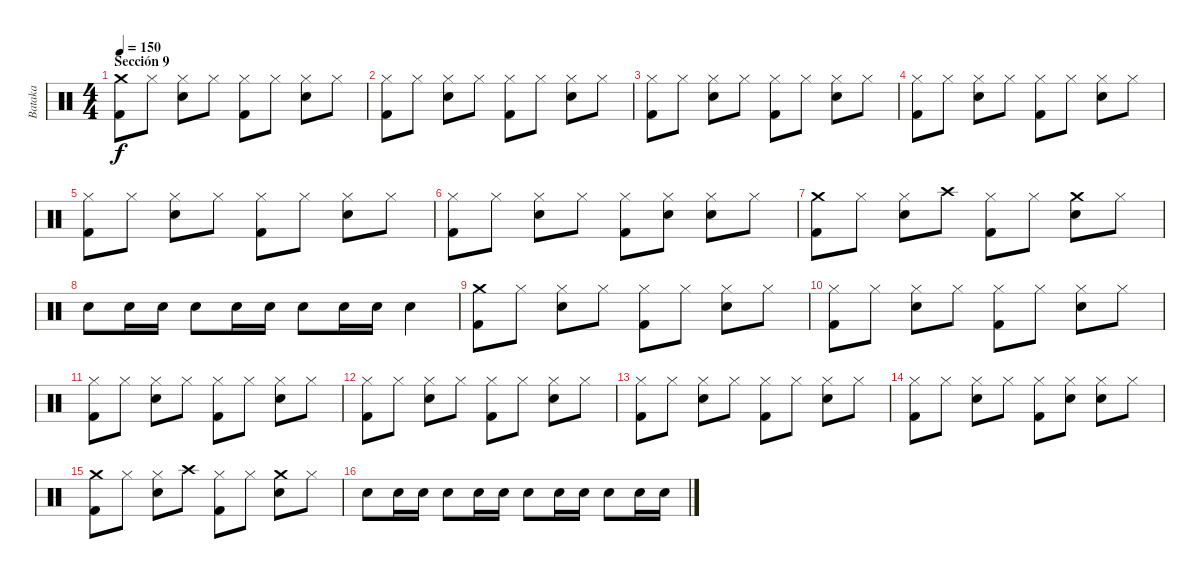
\track ("Bataka" "Bataka") {instrument percussion}
\staff {score}
\articulation defaults
\ts (4 4)
\section ("" "Sección 9")
\tempo 150
\clef neutral
\ks c
("Crash medium (hit)" "Kick (hit) 2").8{dy f} "Hi-Hat (closed)".8 ("Hi-Hat (closed)" "Snare (hit) 2").8 "Hi-Hat (closed)".8 ("Hi-Hat (closed)" "Kick (hit) 2").8 "Hi-Hat (closed)".8 ("Hi-Hat (closed)" "Snare (hit) 2").8 "Hi-Hat (closed)".8 |
("Hi-Hat (closed)" "Kick (hit) 2").8 "Hi-Hat (closed)".8 ("Hi-Hat (closed)" "Snare (hit) 2").8 "Hi-Hat (closed)".8 ("Hi-Hat (closed)" "Kick (hit) 2").8 "Hi-Hat (closed)".8 ("Hi-Hat (closed)" "Snare (hit) 2").8 "Hi-Hat (closed)".8 |
("Hi-Hat (closed)" "Kick (hit) 2").8 "Hi-Hat (closed)".8 ("Hi-Hat (closed)" "Snare (hit) 2").8 "Hi-Hat (closed)".8 ("Hi-Hat (closed)" "Kick (hit) 2").8 "Hi-Hat (closed)".8 ("Hi-Hat (closed)" "Snare (hit) 2").8 "Hi-Hat (closed)".8 |
("Hi-Hat (closed)" "Kick (hit) 2").8 "Hi-Hat (closed)".8 ("Hi-Hat (closed)" "Snare (hit) 2").8 "Hi-Hat (closed)".8 ("Hi-Hat (closed)" "Kick (hit) 2").8 "Hi-Hat (closed)".8 ("Hi-Hat (closed)" "Snare (hit) 2").8 "Hi-Hat (closed)".8 |
("Hi-Hat (closed)" "Kick (hit) 2").8 "Hi-Hat (closed)".8 ("Hi-Hat (closed)" "Snare (hit) 2").8 "Hi-Hat (closed)".8 ("Hi-Hat (closed)" "Kick (hit) 2").8 "Hi-Hat (closed)".8 ("Hi-Hat (closed)" "Snare (hit) 2").8 "Hi-Hat (closed)".8 |
("Hi-Hat (closed)" "Kick (hit) 2").8 "Hi-Hat (closed)".8 ("Hi-Hat (closed)" "Snare (hit) 2").8 "Hi-Hat (closed)".8 ("Hi-Hat (closed)" "Kick (hit) 2").8 ("Hi-Hat (closed)" "Snare (hit) 2").8 ("Hi-Hat (closed)" "Snare (hit) 2").8 "Hi-Hat (closed)".8 |
("Crash medium (hit)" "Kick (hit) 2").8 "Hi-Hat (closed)".8 ("Hi-Hat (closed)" "Snare (hit) 2").8 "Crash high (hit)".8 ("Hi-Hat (closed)" "Kick (hit) 2").8 "Hi-Hat (closed)".8 ("Crash medium (hit)" "Snare (hit) 2").8 "Hi-Hat (closed)".8 |
"Snare (hit) 2".8 "Snare (hit) 2".16 "Snare (hit) 2".16 "Snare (hit) 2".8 "Snare (hit) 2".16 "Snare (hit) 2".16 "Snare (hit) 2".8 "Snare (hit) 2".16 "Snare (hit) 2".16 "Snare (hit) 2".4 |
("Crash medium (hit)" "Kick (hit) 2").8 "Hi-Hat (closed)".8 ("Hi-Hat (closed)" "Snare (hit) 2").8 "Hi-Hat (closed)".8 ("Hi-Hat (closed)" "Kick (hit) 2").8 "Hi-Hat (closed)".8 ("Hi-Hat (closed)" "Snare (hit) 2").8 "Hi-Hat (closed)".8 |
("Hi-Hat (closed)" "Kick (hit) 2").8 "Hi-Hat (closed)".8 ("Hi-Hat (closed)" "Snare (hit) 2").8 "Hi-Hat (closed)".8 ("Hi-Hat (closed)" "Kick (hit) 2").8 "Hi-Hat (closed)".8 ("Hi-Hat (closed)" "Snare (hit) 2").8 "Hi-Hat (closed)".8 |
("Hi-Hat (closed)" "Kick (hit) 2").8 "Hi-Hat (closed)".8 ("Hi-Hat (closed)" "Snare (hit) 2").8 "Hi-Hat (closed)".8 ("Hi-Hat (closed)" "Kick (hit) 2").8 "Hi-Hat (closed)".8 ("Hi-Hat (closed)" "Snare (hit) 2").8 "Hi-Hat (closed)".8 |
("Hi-Hat (closed)" "Kick (hit) 2").8 "Hi-Hat (closed)".8 ("Hi-Hat (closed)" "Snare (hit) 2").8 "Hi-Hat (closed)".8 ("Hi-Hat (closed)" "Kick (hit) 2").8 "Hi-Hat (closed)".8 ("Hi-Hat (closed)" "Snare (hit) 2").8 "Hi-Hat (closed)".8 |
("Hi-Hat (closed)" "Kick (hit) 2").8 "Hi-Hat (closed)".8 ("Hi-Hat (closed)" "Snare (hit) 2").8 "Hi-Hat (closed)".8 ("Hi-Hat (closed)" "Kick (hit) 2").8 "Hi-Hat (closed)".8 ("Hi-Hat (closed)" "Snare (hit) 2").8 "Hi-Hat (closed)".8 |
("Hi-Hat (closed)" "Kick (hit) 2").8 "Hi-Hat (closed)".8 ("Hi-Hat (closed)" "Snare (hit) 2").8 "Hi-Hat (closed)".8 ("Hi-Hat (closed)" "Kick (hit) 2").8 ("Hi-Hat (closed)" "Snare (hit) 2").8 ("Hi-Hat (closed)" "Snare (hit) 2").8 "Hi-Hat (closed)".8 |
("Crash medium (hit)" "Kick (hit) 2").8 "Hi-Hat (closed)".8 ("Hi-Hat (closed)" "Snare (hit) 2").8 "Crash high (hit)".8 ("Hi-Hat (closed)" "Kick (hit) 2").8 "Hi-Hat (closed)".8 ("Crash medium (hit)" "Snare (hit) 2").8 "Hi-Hat (closed)".8 |
"Snare (hit) 2".8 "Snare (hit) 2".16 "Snare (hit) 2".16 "Snare (hit) 2".8 "Snare (hit) 2".16 "Snare (hit) 2".16 "Snare (hit) 2".8 "Snare (hit) 2".16 "Snare (hit) 2".16 "Snare (hit) 2".8 "Snare (hit) 2".16 "Snare (hit) 2".16
